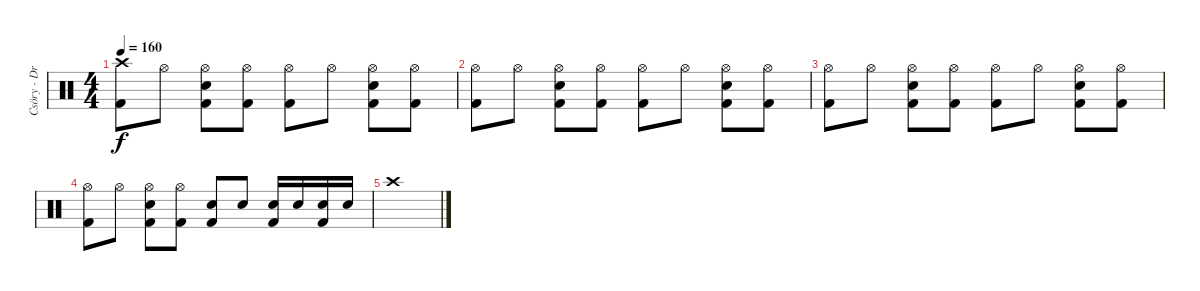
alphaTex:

\track ("Csöry - DrumZ" "Csöry - Dr") {instrument percussion}
\staff {score}
\articulation defaults
\ts (4 4)
\tempo 160
\clef neutral
\ks c
("Crash high (hit)" "Kick (hit) 2").8{dy f} "Hi-Hat (open)".8 ("Hi-Hat (open)" "Snare (hit) 2" "Kick (hit) 2").8 ("Hi-Hat (open)" "Kick (hit) 2").8 ("Hi-Hat (open)" "Kick (hit) 2").8 "Hi-Hat (open)".8 ("Hi-Hat (open)" "Snare (hit) 2" "Kick (hit) 2").8 ("Hi-Hat (open)" "Kick (hit) 2").8 |
("Hi-Hat (open)" "Kick (hit) 2").8 "Hi-Hat (open)".8 ("Hi-Hat (open)" "Snare (hit) 2" "Kick (hit) 2").8 ("Hi-Hat (open)" "Kick (hit) 2").8 ("Hi-Hat (open)" "Kick (hit) 2").8 "Hi-Hat (open)".8 ("Hi-Hat (open)" "Snare (hit) 2" "Kick (hit) 2").8 ("Hi-Hat (open)" "Kick (hit) 2").8 |
("Hi-Hat (open)" "Kick (hit) 2").8 "Hi-Hat (open)".8 ("Hi-Hat (open)" "Snare (hit) 2" "Kick (hit) 2").8 ("Hi-Hat (open)" "Kick (hit) 2").8 ("Hi-Hat (open)" "Kick (hit) 2").8 "Hi-Hat (open)".8 ("Hi-Hat (open)" "Snare (hit) 2" "Kick (hit) 2").8 ("Hi-Hat (open)" "Kick (hit) 2").8 |
("Hi-Hat (open)" "Kick (hit) 2").8 "Hi-Hat (open)".8 ("Hi-Hat (open)" "Snare (hit) 2" "Kick (hit) 2").8 ("Hi-Hat (open)" "Kick (hit) 2").8 ("Snare (hit) 2" "Kick (hit) 2").8 "Snare (hit) 2".8 ("Snare (hit) 2" "Kick (hit) 2").16 "Snare (hit) 2".16 ("Snare (hit) 2" "Kick (hit) 2").16 "Snare (hit) 2".16 |
"Crash high (hit)".1
